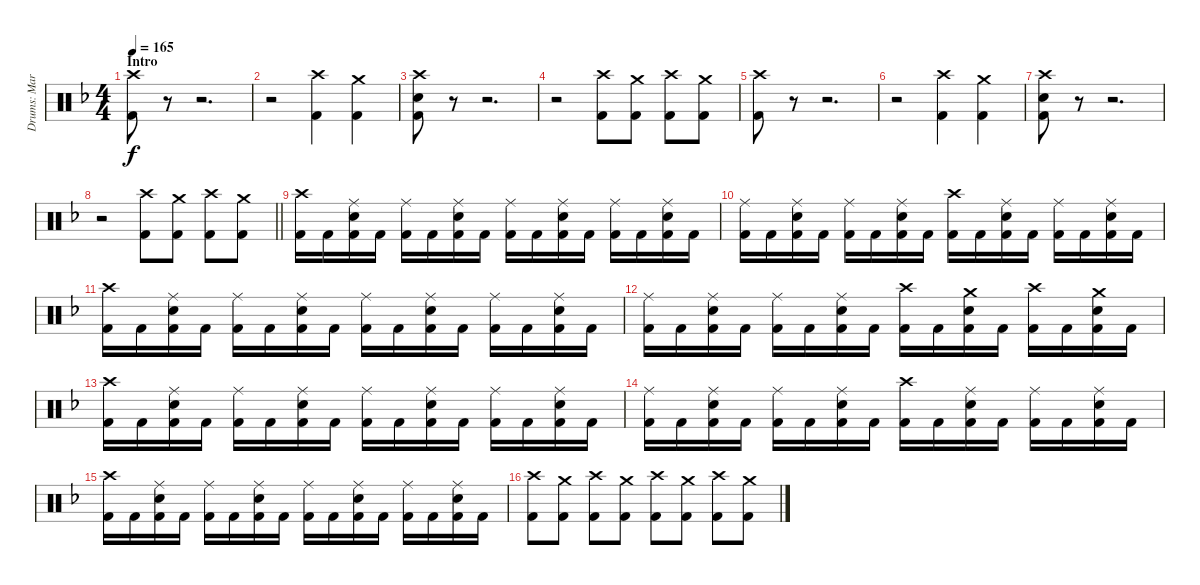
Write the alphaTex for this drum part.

\track ("Drums: Martin Herzinger" "Drums: Mar") {instrument percussion}
\staff {score}
\articulation defaults
\ts (4 4)
\section ("" "Intro")
\tempo 165
\clef neutral
\ks dminor
("Crash high (hit)" "Kick (hit) 2").8{dy f} r.8 r.2{d} |
r.2 ("Crash high (hit)" "Kick (hit) 2").4 ("Crash medium (hit)" "Kick (hit) 2").4 |
("Crash high (hit)" "Snare (hit) 2" "Kick (hit) 2").8 r.8 r.2{d} |
r.2 ("Crash high (hit)" "Kick (hit) 2").8 ("Crash medium (hit)" "Kick (hit) 2").8 ("Crash high (hit)" "Kick (hit) 2").8 ("Crash medium (hit)" "Kick (hit) 2").8 |
("Crash high (hit)" "Kick (hit) 2").8 r.8 r.2{d} |
r.2 ("Crash high (hit)" "Kick (hit) 2").4 ("Crash medium (hit)" "Kick (hit) 2").4 |
("Crash high (hit)" "Snare (hit) 2" "Kick (hit) 2").8 r.8 r.2{d} |
\barLineRight lightlight
r.2 ("Crash high (hit)" "Kick (hit) 2").8 ("Crash medium (hit)" "Kick (hit) 2").8 ("Crash high (hit)" "Kick (hit) 2").8 ("Crash medium (hit)" "Kick (hit) 2").8 |
("Crash high (hit)" "Kick (hit) 2").16 "Kick (hit) 2".16 ("Ride (middle)" "Snare (hit) 2" "Kick (hit) 2").16 "Kick (hit) 2".16 ("Ride (middle)" "Kick (hit) 2").16 "Kick (hit) 2".16 ("Ride (middle)" "Snare (hit) 2" "Kick (hit) 2").16 "Kick (hit) 2".16 ("Ride (middle)" "Kick (hit) 2").16 "Kick (hit) 2".16 ("Ride (middle)" "Snare (hit) 2" "Kick (hit) 2").16 "Kick (hit) 2".16 ("Ride (middle)" "Kick (hit) 2").16 "Kick (hit) 2".16 ("Ride (middle)" "Snare (hit) 2" "Kick (hit) 2").16 "Kick (hit) 2".16 |
("Ride (middle)" "Kick (hit) 2").16 "Kick (hit) 2".16 ("Ride (middle)" "Snare (hit) 2" "Kick (hit) 2").16 "Kick (hit) 2".16 ("Ride (middle)" "Kick (hit) 2").16 "Kick (hit) 2".16 ("Ride (middle)" "Snare (hit) 2" "Kick (hit) 2").16 "Kick (hit) 2".16 ("Crash high (hit)" "Kick (hit) 2").16 "Kick (hit) 2".16 ("Ride (middle)" "Snare (hit) 2" "Kick (hit) 2").16 "Kick (hit) 2".16 ("Ride (middle)" "Kick (hit) 2").16 "Kick (hit) 2".16 ("Ride (middle)" "Snare (hit) 2" "Kick (hit) 2").16 "Kick (hit) 2".16 |
("Crash high (hit)" "Kick (hit) 2").16 "Kick (hit) 2".16 ("Ride (middle)" "Snare (hit) 2" "Kick (hit) 2").16 "Kick (hit) 2".16 ("Ride (middle)" "Kick (hit) 2").16 "Kick (hit) 2".16 ("Ride (middle)" "Snare (hit) 2" "Kick (hit) 2").16 "Kick (hit) 2".16 ("Ride (middle)" "Kick (hit) 2").16 "Kick (hit) 2".16 ("Ride (middle)" "Snare (hit) 2" "Kick (hit) 2").16 "Kick (hit) 2".16 ("Ride (middle)" "Kick (hit) 2").16 "Kick (hit) 2".16 ("Ride (middle)" "Snare (hit) 2" "Kick (hit) 2").16 "Kick (hit) 2".16 |
("Ride (middle)" "Kick (hit) 2").16 "Kick (hit) 2".16 ("Ride (middle)" "Snare (hit) 2" "Kick (hit) 2").16 "Kick (hit) 2".16 ("Ride (middle)" "Kick (hit) 2").16 "Kick (hit) 2".16 ("Ride (middle)" "Snare (hit) 2" "Kick (hit) 2").16 "Kick (hit) 2".16 ("Crash high (hit)" "Kick (hit) 2").16 "Kick (hit) 2".16 ("Crash medium (hit)" "Snare (hit) 2" "Kick (hit) 2").16 "Kick (hit) 2".16 ("Crash high (hit)" "Kick (hit) 2").16 "Kick (hit) 2".16 ("Crash medium (hit)" "Snare (hit) 2" "Kick (hit) 2").16 "Kick (hit) 2".16 |
("Crash high (hit)" "Kick (hit) 2").16 "Kick (hit) 2".16 ("Ride (middle)" "Snare (hit) 2" "Kick (hit) 2").16 "Kick (hit) 2".16 ("Ride (middle)" "Kick (hit) 2").16 "Kick (hit) 2".16 ("Ride (middle)" "Snare (hit) 2" "Kick (hit) 2").16 "Kick (hit) 2".16 ("Ride (middle)" "Kick (hit) 2").16 "Kick (hit) 2".16 ("Ride (middle)" "Snare (hit) 2" "Kick (hit) 2").16 "Kick (hit) 2".16 ("Ride (middle)" "Kick (hit) 2").16 "Kick (hit) 2".16 ("Ride (middle)" "Snare (hit) 2" "Kick (hit) 2").16 "Kick (hit) 2".16 |
("Ride (middle)" "Kick (hit) 2").16 "Kick (hit) 2".16 ("Ride (middle)" "Snare (hit) 2" "Kick (hit) 2").16 "Kick (hit) 2".16 ("Ride (middle)" "Kick (hit) 2").16 "Kick (hit) 2".16 ("Ride (middle)" "Snare (hit) 2" "Kick (hit) 2").16 "Kick (hit) 2".16 ("Crash high (hit)" "Kick (hit) 2").16 "Kick (hit) 2".16 ("Ride (middle)" "Snare (hit) 2" "Kick (hit) 2").16 "Kick (hit) 2".16 ("Ride (middle)" "Kick (hit) 2").16 "Kick (hit) 2".16 ("Ride (middle)" "Snare (hit) 2" "Kick (hit) 2").16 "Kick (hit) 2".16 |
("Crash high (hit)" "Kick (hit) 2").16 "Kick (hit) 2".16 ("Ride (middle)" "Snare (hit) 2" "Kick (hit) 2").16 "Kick (hit) 2".16 ("Ride (middle)" "Kick (hit) 2").16 "Kick (hit) 2".16 ("Ride (middle)" "Snare (hit) 2" "Kick (hit) 2").16 "Kick (hit) 2".16 ("Ride (middle)" "Kick (hit) 2").16 "Kick (hit) 2".16 ("Ride (middle)" "Snare (hit) 2" "Kick (hit) 2").16 "Kick (hit) 2".16 ("Ride (middle)" "Kick (hit) 2").16 "Kick (hit) 2".16 ("Ride (middle)" "Snare (hit) 2" "Kick (hit) 2").16 "Kick (hit) 2".16 |
("Crash high (hit)" "Kick (hit) 2").8 ("Crash medium (hit)" "Kick (hit) 2").8 ("Crash high (hit)" "Kick (hit) 2").8 ("Crash medium (hit)" "Kick (hit) 2").8 ("Crash high (hit)" "Kick (hit) 2").8 ("Crash medium (hit)" "Kick (hit) 2").8 ("Crash high (hit)" "Kick (hit) 2").8 ("Crash medium (hit)" "Kick (hit) 2").8
